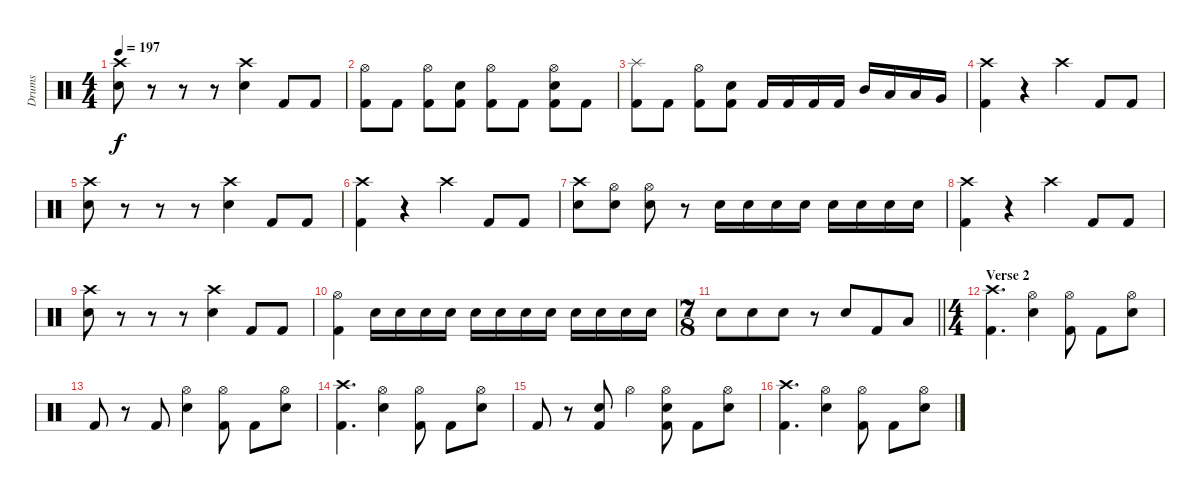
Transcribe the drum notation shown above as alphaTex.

\track ("Drums" "Drums") {instrument percussion}
\staff {score}
\articulation defaults
\ts (4 4)
\tempo 197
\clef neutral
\ks c
("Crash high (hit)" "Electric Snare (hit)").8{dy f} r.8 r.8 r.8 ("Crash high (hit)" "Electric Snare (hit)").4 "Kick (hit) 2".8 "Kick (hit) 2".8 |
("Hi-Hat (open)" "Kick (hit) 2").8 "Kick (hit) 2".8 ("Hi-Hat (open)" "Kick (hit) 2").8 ("Electric Snare (hit)" "Kick (hit) 2").8 ("Hi-Hat (open)" "Kick (hit) 2").8 "Kick (hit) 2".8 ("Hi-Hat (open)" "Electric Snare (hit)" "Kick (hit) 2").8 "Kick (hit) 2".8 |
("Splash (hit)" "Kick (hit) 2").8 "Kick (hit) 2".8 ("Hi-Hat (open)" "Kick (hit) 2").8 ("Electric Snare (hit)" "Kick (hit) 2").8 "Kick (hit) 2".16 "Kick (hit) 2".16 "Kick (hit) 2".16 "Kick (hit) 2".16 "Mid Tom (hit)".16 "Low Tom (hit)".16 "Low Tom (hit)".16 "Very Low Tom (hit)".16 |
("Crash high (hit)" "Kick (hit) 2").4 r.4 "Crash high (hit)".4 "Kick (hit) 2".8 "Kick (hit) 2".8 |
("Crash high (hit)" "Electric Snare (hit)").8 r.8 r.8 r.8 ("Crash high (hit)" "Electric Snare (hit)").4 "Kick (hit) 2".8 "Kick (hit) 2".8 |
("Crash high (hit)" "Kick (hit) 2").4 r.4 "Crash high (hit)".4 "Kick (hit) 2".8 "Kick (hit) 2".8 |
("Crash high (hit)" "Electric Snare (hit)").8 ("Hi-Hat (open)" "Electric Snare (hit)").8 ("Hi-Hat (open)" "Electric Snare (hit)").8 r.8 "Electric Snare (hit)".16 "Electric Snare (hit)".16 "Electric Snare (hit)".16 "Electric Snare (hit)".16 "Electric Snare (hit)".16 "Electric Snare (hit)".16 "Electric Snare (hit)".16 "Electric Snare (hit)".16 |
("Crash high (hit)" "Kick (hit) 2").4 r.4 "Crash high (hit)".4 "Kick (hit) 2".8 "Kick (hit) 2".8 |
("Crash high (hit)" "Electric Snare (hit)").8 r.8 r.8 r.8 ("Crash high (hit)" "Electric Snare (hit)").4 "Kick (hit) 2".8 "Kick (hit) 2".8 |
("Hi-Hat (open)" "Kick (hit) 2").4 "Electric Snare (hit)".16 "Electric Snare (hit)".16 "Electric Snare (hit)".16 "Electric Snare (hit)".16 "Electric Snare (hit)".16 "Electric Snare (hit)".16 "Electric Snare (hit)".16 "Electric Snare (hit)".16 "Electric Snare (hit)".16 "Electric Snare (hit)".16 "Electric Snare (hit)".16 "Electric Snare (hit)".16 |
\ts (7 8)
\barLineRight lightlight "Electric Snare (hit)".8 "Electric Snare (hit)".8 "Electric Snare (hit)".8
r.8 "Electric Snare (hit)".8 "Kick (hit) 2".8 "Low Tom (hit)".8 |
\ts (4 4)
\section ("" "Verse 2")
("Crash high (hit)" "Kick (hit) 2").4{d} ("Hi-Hat (open)" "Electric Snare (hit)").4 ("Hi-Hat (open)" "Kick (hit) 2").8 "Kick (hit) 2".8 ("Hi-Hat (open)" "Electric Snare (hit)").8 |
"Kick (hit) 2".8 r.8 "Kick (hit) 2".8 ("Hi-Hat (open)" "Electric Snare (hit)").4 ("Hi-Hat (open)" "Kick (hit) 2").8 "Kick (hit) 2".8 ("Hi-Hat (open)" "Electric Snare (hit)").8 |
("Crash high (hit)" "Kick (hit) 2").4{d} ("Hi-Hat (open)" "Electric Snare (hit)").4 ("Hi-Hat (open)" "Kick (hit) 2").8 "Kick (hit) 2".8 ("Hi-Hat (open)" "Electric Snare (hit)").8 |
"Kick (hit) 2".8 r.8 ("Electric Snare (hit)" "Kick (hit) 2").8 "Hi-Hat (open)".4 ("Hi-Hat (open)" "Electric Snare (hit)" "Kick (hit) 2").8 "Kick (hit) 2".8 ("Hi-Hat (open)" "Electric Snare (hit)").8 |
("Crash high (hit)" "Kick (hit) 2").4{d} ("Hi-Hat (open)" "Electric Snare (hit)").4 ("Hi-Hat (open)" "Kick (hit) 2").8 "Kick (hit) 2".8 ("Hi-Hat (open)" "Electric Snare (hit)").8
